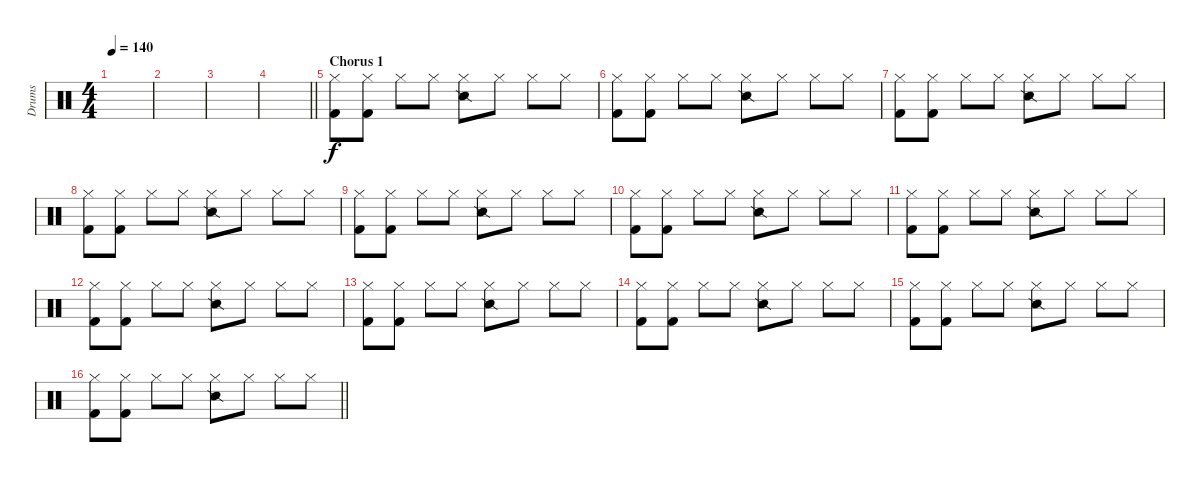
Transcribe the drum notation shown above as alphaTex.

\track ("Drums" "Drums") {instrument percussion}
\staff {score}
\articulation defaults
\ts (4 4)
\tempo 140
\clef neutral
\ks c
|
|
|
\barLineRight lightlight
|
\section ("" "Chorus 1")
("Hi-Hat (closed)" "Kick (hit) 2").8 ("Hi-Hat (closed)" "Kick (hit) 2").8 "Hi-Hat (closed)".8 "Hi-Hat (closed)".8 ("Hi-Hat (closed)" "Snare (side stick) 2").8 "Hi-Hat (closed)".8 "Hi-Hat (closed)".8 "Hi-Hat (closed)".8 |
("Hi-Hat (closed)" "Kick (hit) 2").8 ("Hi-Hat (closed)" "Kick (hit) 2").8 "Hi-Hat (closed)".8 "Hi-Hat (closed)".8 ("Hi-Hat (closed)" "Snare (side stick) 2").8 "Hi-Hat (closed)".8 "Hi-Hat (closed)".8 "Hi-Hat (closed)".8 |
("Hi-Hat (closed)" "Kick (hit) 2").8 ("Hi-Hat (closed)" "Kick (hit) 2").8 "Hi-Hat (closed)".8 "Hi-Hat (closed)".8 ("Hi-Hat (closed)" "Snare (side stick) 2").8 "Hi-Hat (closed)".8 "Hi-Hat (closed)".8 "Hi-Hat (closed)".8 |
("Hi-Hat (closed)" "Kick (hit) 2").8 ("Hi-Hat (closed)" "Kick (hit) 2").8 "Hi-Hat (closed)".8 "Hi-Hat (closed)".8 ("Hi-Hat (closed)" "Snare (side stick) 2").8 "Hi-Hat (closed)".8 "Hi-Hat (closed)".8 "Hi-Hat (closed)".8 |
("Hi-Hat (closed)" "Kick (hit) 2").8 ("Hi-Hat (closed)" "Kick (hit) 2").8 "Hi-Hat (closed)".8 "Hi-Hat (closed)".8 ("Hi-Hat (closed)" "Snare (side stick) 2").8 "Hi-Hat (closed)".8 "Hi-Hat (closed)".8 "Hi-Hat (closed)".8 |
("Hi-Hat (closed)" "Kick (hit) 2").8 ("Hi-Hat (closed)" "Kick (hit) 2").8 "Hi-Hat (closed)".8 "Hi-Hat (closed)".8 ("Hi-Hat (closed)" "Snare (side stick) 2").8 "Hi-Hat (closed)".8 "Hi-Hat (closed)".8 "Hi-Hat (closed)".8 |
("Hi-Hat (closed)" "Kick (hit) 2").8 ("Hi-Hat (closed)" "Kick (hit) 2").8 "Hi-Hat (closed)".8 "Hi-Hat (closed)".8 ("Hi-Hat (closed)" "Snare (side stick) 2").8 "Hi-Hat (closed)".8 "Hi-Hat (closed)".8 "Hi-Hat (closed)".8 |
("Hi-Hat (closed)" "Kick (hit) 2").8 ("Hi-Hat (closed)" "Kick (hit) 2").8 "Hi-Hat (closed)".8 "Hi-Hat (closed)".8 ("Hi-Hat (closed)" "Snare (side stick) 2").8 "Hi-Hat (closed)".8 "Hi-Hat (closed)".8 "Hi-Hat (closed)".8 |
("Hi-Hat (closed)" "Kick (hit) 2").8 ("Hi-Hat (closed)" "Kick (hit) 2").8 "Hi-Hat (closed)".8 "Hi-Hat (closed)".8 ("Hi-Hat (closed)" "Snare (side stick) 2").8 "Hi-Hat (closed)".8 "Hi-Hat (closed)".8 "Hi-Hat (closed)".8 |
("Hi-Hat (closed)" "Kick (hit) 2").8 ("Hi-Hat (closed)" "Kick (hit) 2").8 "Hi-Hat (closed)".8 "Hi-Hat (closed)".8 ("Hi-Hat (closed)" "Snare (side stick) 2").8 "Hi-Hat (closed)".8 "Hi-Hat (closed)".8 "Hi-Hat (closed)".8 |
("Hi-Hat (closed)" "Kick (hit) 2").8 ("Hi-Hat (closed)" "Kick (hit) 2").8 "Hi-Hat (closed)".8 "Hi-Hat (closed)".8 ("Hi-Hat (closed)" "Snare (side stick) 2").8 "Hi-Hat (closed)".8 "Hi-Hat (closed)".8 "Hi-Hat (closed)".8 |
\barLineRight lightlight
("Hi-Hat (closed)" "Kick (hit) 2").8 ("Hi-Hat (closed)" "Kick (hit) 2").8 "Hi-Hat (closed)".8 "Hi-Hat (closed)".8 ("Hi-Hat (closed)" "Snare (side stick) 2").8 "Hi-Hat (closed)".8 "Hi-Hat (closed)".8 "Hi-Hat (closed)".8
